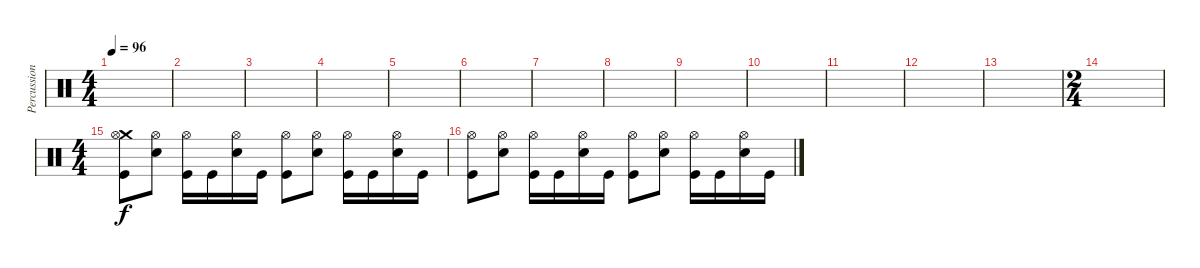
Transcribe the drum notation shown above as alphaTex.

\track ("Percussion" "Percussion") {instrument percussion}
\staff {score}
\articulation defaults
\ts (4 4)
\tempo 96
\clef neutral
\ks c
|
|
|
|
|
|
|
|
|
|
|
|
|
\ts (2 4)
|
\ts (4 4)
("Crash medium (hit)" "Hi-Hat (open)" "Kick (hit)").8 ("Hi-Hat (open)" "Electric Snare (hit)").8 ("Hi-Hat (open)" "Kick (hit)").16 "Kick (hit)".16 ("Hi-Hat (open)" "Electric Snare (hit)").16 "Kick (hit)".16 ("Hi-Hat (open)" "Kick (hit)").8 ("Hi-Hat (open)" "Electric Snare (hit)").8 ("Hi-Hat (open)" "Kick (hit)").16 "Kick (hit)".16 ("Hi-Hat (open)" "Electric Snare (hit)").16 "Kick (hit)".16 |
("Hi-Hat (open)" "Kick (hit)").8 ("Hi-Hat (open)" "Electric Snare (hit)").8 ("Hi-Hat (open)" "Kick (hit)").16 "Kick (hit)".16 ("Hi-Hat (open)" "Electric Snare (hit)").16 "Kick (hit)".16 ("Hi-Hat (open)" "Kick (hit)").8 ("Hi-Hat (open)" "Electric Snare (hit)").8 ("Hi-Hat (open)" "Kick (hit)").16 "Kick (hit)".16 ("Hi-Hat (open)" "Electric Snare (hit)").16 "Kick (hit)".16
